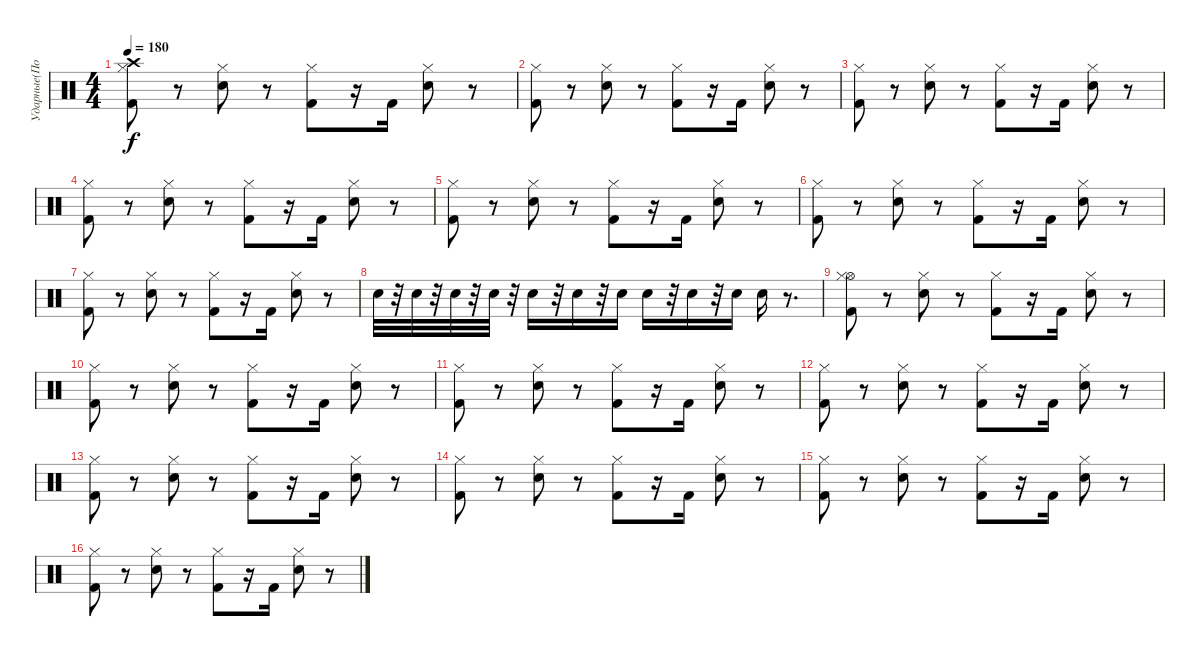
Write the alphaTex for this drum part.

\track ("Ударные(Потапкин)" "Ударные(По") {instrument percussion}
\staff {score}
\articulation defaults
\ts (4 4)
\tempo 180
\clef neutral
\ks c
("Kick (hit) 2" "Crash high (hit)" "Hi-Hat (closed)").8{dy f} r.8 ("Electric Snare (hit)" "Hi-Hat (closed)").8 r.8 ("Kick (hit) 2" "Hi-Hat (closed)").8 r.16 "Kick (hit) 2".16 ("Electric Snare (hit)" "Hi-Hat (closed)").8 r.8 |
("Kick (hit) 2" "Hi-Hat (closed)").8 r.8 ("Electric Snare (hit)" "Hi-Hat (closed)").8 r.8 ("Kick (hit) 2" "Hi-Hat (closed)").8 r.16 "Kick (hit) 2".16 ("Electric Snare (hit)" "Hi-Hat (closed)").8 r.8 |
("Hi-Hat (closed)" "Kick (hit) 2").8 r.8 ("Hi-Hat (closed)" "Electric Snare (hit)").8 r.8 ("Hi-Hat (closed)" "Kick (hit) 2").8 r.16 "Kick (hit) 2".16 ("Hi-Hat (closed)" "Electric Snare (hit)").8 r.8 |
("Kick (hit) 2" "Hi-Hat (closed)").8 r.8 ("Electric Snare (hit)" "Hi-Hat (closed)").8 r.8 ("Kick (hit) 2" "Hi-Hat (closed)").8 r.16 "Kick (hit) 2".16 ("Electric Snare (hit)" "Hi-Hat (closed)").8 r.8 |
("Kick (hit) 2" "Hi-Hat (closed)").8 r.8 ("Electric Snare (hit)" "Hi-Hat (closed)").8 r.8 ("Kick (hit) 2" "Hi-Hat (closed)").8 r.16 "Kick (hit) 2".16 ("Electric Snare (hit)" "Hi-Hat (closed)").8 r.8 |
("Kick (hit) 2" "Hi-Hat (closed)").8 r.8 ("Electric Snare (hit)" "Hi-Hat (closed)").8 r.8 ("Kick (hit) 2" "Hi-Hat (closed)").8 r.16 "Kick (hit) 2".16 ("Electric Snare (hit)" "Hi-Hat (closed)").8 r.8 |
("Hi-Hat (closed)" "Kick (hit) 2").8 r.8 ("Hi-Hat (closed)" "Electric Snare (hit)").8 r.8 ("Hi-Hat (closed)" "Kick (hit) 2").8 r.16 "Kick (hit) 2".16 ("Hi-Hat (closed)" "Electric Snare (hit)").8 r.8 |
"Electric Snare (hit)".32 r.32 "Electric Snare (hit)".32 r.32 "Electric Snare (hit)".32 r.32 "Electric Snare (hit)".32 r.32 "Electric Snare (hit)".16 r.32 "Electric Snare (hit)".16 r.32 "Electric Snare (hit)".16 "Electric Snare (hit)".16 r.32 "Electric Snare (hit)".16 r.32 "Electric Snare (hit)".16 "Snare (hit) 2".16 r.8{d} |
("Kick (hit) 2" "Hi-Hat (open)" "Hi-Hat (closed)").8 r.8 ("Electric Snare (hit)" "Hi-Hat (closed)").8 r.8 ("Kick (hit) 2" "Hi-Hat (closed)").8 r.16 "Kick (hit) 2".16 ("Electric Snare (hit)" "Hi-Hat (closed)").8 r.8 |
("Hi-Hat (closed)" "Kick (hit) 2").8 r.8 ("Hi-Hat (closed)" "Electric Snare (hit)").8 r.8 ("Hi-Hat (closed)" "Kick (hit) 2").8 r.16 "Kick (hit) 2".16 ("Hi-Hat (closed)" "Electric Snare (hit)").8 r.8 |
("Kick (hit) 2" "Hi-Hat (closed)").8 r.8 ("Electric Snare (hit)" "Hi-Hat (closed)").8 r.8 ("Kick (hit) 2" "Hi-Hat (closed)").8 r.16 "Kick (hit) 2".16 ("Electric Snare (hit)" "Hi-Hat (closed)").8 r.8 |
("Hi-Hat (closed)" "Kick (hit) 2").8 r.8 ("Hi-Hat (closed)" "Electric Snare (hit)").8 r.8 ("Hi-Hat (closed)" "Kick (hit) 2").8 r.16 "Kick (hit) 2".16 ("Hi-Hat (closed)" "Electric Snare (hit)").8 r.8 |
("Hi-Hat (closed)" "Kick (hit) 2").8 r.8 ("Hi-Hat (closed)" "Electric Snare (hit)").8 r.8 ("Hi-Hat (closed)" "Kick (hit) 2").8 r.16 "Kick (hit) 2".16 ("Hi-Hat (closed)" "Electric Snare (hit)").8 r.8 |
("Kick (hit) 2" "Hi-Hat (closed)").8 r.8 ("Electric Snare (hit)" "Hi-Hat (closed)").8 r.8 ("Kick (hit) 2" "Hi-Hat (closed)").8 r.16 "Kick (hit) 2".16 ("Electric Snare (hit)" "Hi-Hat (closed)").8 r.8 |
("Kick (hit) 2" "Hi-Hat (closed)").8 r.8 ("Electric Snare (hit)" "Hi-Hat (closed)").8 r.8 ("Kick (hit) 2" "Hi-Hat (closed)").8 r.16 "Kick (hit) 2".16 ("Electric Snare (hit)" "Hi-Hat (closed)").8 r.8 |
("Kick (hit) 2" "Hi-Hat (closed)").8 r.8 ("Electric Snare (hit)" "Hi-Hat (closed)").8 r.8 ("Kick (hit) 2" "Hi-Hat (closed)").8 r.16 "Kick (hit) 2".16 ("Electric Snare (hit)" "Hi-Hat (closed)").8 r.8
